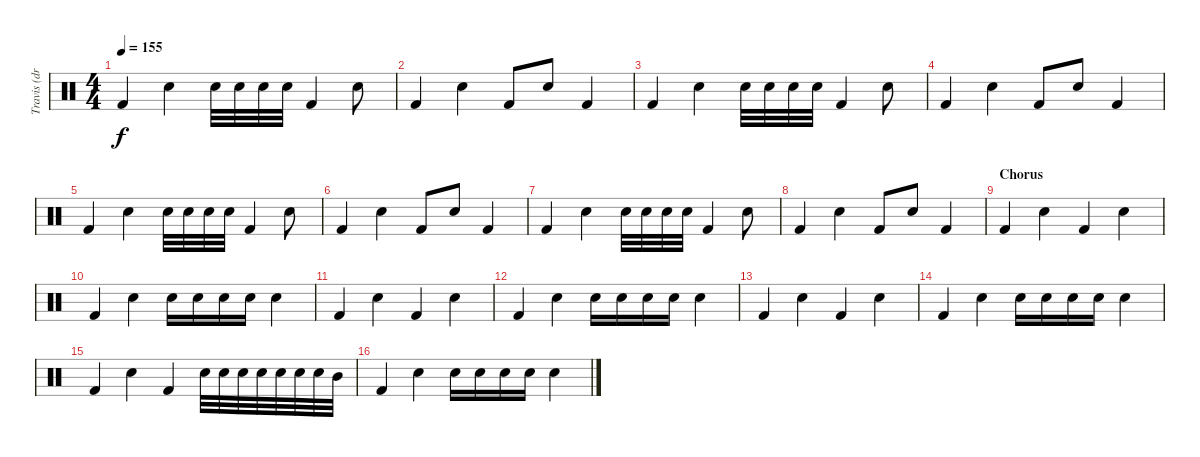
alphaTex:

\track ("Travis (drums)" "Travis (dr") {instrument percussion}
\staff {score}
\articulation defaults
\ts (4 4)
\tempo 155
\clef neutral
\ks c "Kick (hit) 2".4{dy f} "Snare (hit) 2".4 "Snare (hit) 2".32 "Snare (hit) 2".32 "Snare (hit) 2".32 "Snare (hit) 2".32 "Kick (hit) 2".4 "Snare (hit) 2".8
|
"Kick (hit) 2".4 "Snare (hit) 2".4 "Kick (hit) 2".8 "Snare (hit) 2".8 "Kick (hit) 2".4 |
"Kick (hit) 2".4 "Snare (hit) 2".4 "Snare (hit) 2".32 "Snare (hit) 2".32 "Snare (hit) 2".32 "Snare (hit) 2".32 "Kick (hit) 2".4 "Snare (hit) 2".8 |
"Kick (hit) 2".4 "Snare (hit) 2".4 "Kick (hit) 2".8 "Snare (hit) 2".8 "Kick (hit) 2".4 |
"Kick (hit) 2".4 "Snare (hit) 2".4 "Snare (hit) 2".32 "Snare (hit) 2".32 "Snare (hit) 2".32 "Snare (hit) 2".32 "Kick (hit) 2".4 "Snare (hit) 2".8 |
"Kick (hit) 2".4 "Snare (hit) 2".4 "Kick (hit) 2".8 "Snare (hit) 2".8 "Kick (hit) 2".4 |
"Kick (hit) 2".4 "Snare (hit) 2".4 "Snare (hit) 2".32 "Snare (hit) 2".32 "Snare (hit) 2".32 "Snare (hit) 2".32 "Kick (hit) 2".4 "Snare (hit) 2".8 |
"Kick (hit) 2".4 "Snare (hit) 2".4 "Kick (hit) 2".8 "Snare (hit) 2".8 "Kick (hit) 2".4 |
\section ("" "Chorus")
"Kick (hit) 2".4 "Snare (hit) 2".4 "Kick (hit) 2".4 "Snare (hit) 2".4 |
"Kick (hit) 2".4 "Snare (hit) 2".4 "Snare (hit) 2".16 "Snare (hit) 2".16 "Snare (hit) 2".16 "Snare (hit) 2".16 "Snare (hit) 2".4 |
"Kick (hit) 2".4 "Snare (hit) 2".4 "Kick (hit) 2".4 "Snare (hit) 2".4 |
"Kick (hit) 2".4 "Snare (hit) 2".4 "Snare (hit) 2".16 "Snare (hit) 2".16 "Snare (hit) 2".16 "Snare (hit) 2".16 "Snare (hit) 2".4 |
"Kick (hit) 2".4 "Snare (hit) 2".4 "Kick (hit) 2".4 "Snare (hit) 2".4 |
"Kick (hit) 2".4 "Snare (hit) 2".4 "Snare (hit) 2".16 "Snare (hit) 2".16 "Snare (hit) 2".16 "Snare (hit) 2".16 "Snare (hit) 2".4 |
"Kick (hit) 2".4 "Snare (hit) 2".4 "Kick (hit) 2".4 "Snare (hit) 2".32 "Snare (hit) 2".32 "Snare (hit) 2".32 "Snare (hit) 2".32 "Snare (hit) 2".32 "Snare (hit) 2".32 "Snare (hit) 2".32 "Mid Tom (hit)".32 |
"Kick (hit) 2".4 "Snare (hit) 2".4 "Snare (hit) 2".16 "Snare (hit) 2".16 "Snare (hit) 2".16 "Snare (hit) 2".16 "Snare (hit) 2".4
